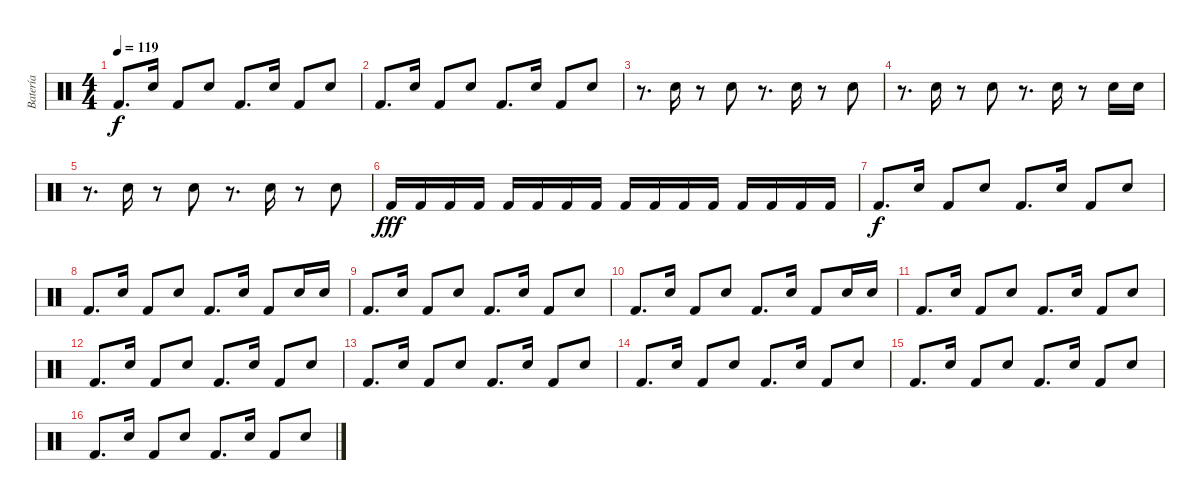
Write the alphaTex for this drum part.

\track ("Batería" "Batería") {instrument percussion}
\staff {score}
\articulation defaults
\ts (4 4)
\tempo 119
\clef neutral
\ks c "Kick (hit) 2".8{d dy f} "Electric Snare (hit)".16 "Kick (hit) 2".8 "Electric Snare (hit)".8 "Kick (hit) 2".8{d} "Electric Snare (hit)".16 "Kick (hit) 2".8 "Electric Snare (hit)".8
|
"Kick (hit) 2".8{d} "Electric Snare (hit)".16 "Kick (hit) 2".8 "Electric Snare (hit)".8 "Kick (hit) 2".8{d} "Electric Snare (hit)".16 "Kick (hit) 2".8 "Electric Snare (hit)".8 |
r.8{d} "Electric Snare (hit)".16 r.8 "Electric Snare (hit)".8 r.8{d} "Electric Snare (hit)".16 r.8 "Electric Snare (hit)".8 |
r.8{d} "Electric Snare (hit)".16 r.8 "Electric Snare (hit)".8 r.8{d} "Electric Snare (hit)".16 r.8 "Electric Snare (hit)".16 "Electric Snare (hit)".16 |
r.8{d} "Electric Snare (hit)".16 r.8 "Electric Snare (hit)".8 r.8{d} "Electric Snare (hit)".16 r.8 "Electric Snare (hit)".8 |
"Kick (hit) 2".16{dy fff volume 10} "Kick (hit) 2".16{volume 16} "Kick (hit) 2".16 "Kick (hit) 2".16 "Kick (hit) 2".16 "Kick (hit) 2".16 "Kick (hit) 2".16 "Kick (hit) 2".16 "Kick (hit) 2".16 "Kick (hit) 2".16 "Kick (hit) 2".16 "Kick (hit) 2".16 "Kick (hit) 2".16 "Kick (hit) 2".16 "Kick (hit) 2".16 "Kick (hit) 2".16 |
"Kick (hit) 2".8{d dy f} "Electric Snare (hit)".16 "Kick (hit) 2".8 "Electric Snare (hit)".8 "Kick (hit) 2".8{d} "Electric Snare (hit)".16 "Kick (hit) 2".8 "Electric Snare (hit)".8 |
"Kick (hit) 2".8{d} "Electric Snare (hit)".16 "Kick (hit) 2".8 "Electric Snare (hit)".8 "Kick (hit) 2".8{d} "Electric Snare (hit)".16 "Kick (hit) 2".8 "Electric Snare (hit)".16 "Electric Snare (hit)".16 |
"Kick (hit) 2".8{d} "Electric Snare (hit)".16 "Kick (hit) 2".8 "Electric Snare (hit)".8 "Kick (hit) 2".8{d} "Electric Snare (hit)".16 "Kick (hit) 2".8 "Electric Snare (hit)".8 |
"Kick (hit) 2".8{d} "Electric Snare (hit)".16 "Kick (hit) 2".8 "Electric Snare (hit)".8 "Kick (hit) 2".8{d} "Electric Snare (hit)".16 "Kick (hit) 2".8 "Electric Snare (hit)".16 "Electric Snare (hit)".16 |
"Kick (hit) 2".8{d} "Electric Snare (hit)".16 "Kick (hit) 2".8 "Electric Snare (hit)".8 "Kick (hit) 2".8{d} "Electric Snare (hit)".16 "Kick (hit) 2".8 "Electric Snare (hit)".8 |
"Kick (hit) 2".8{d} "Electric Snare (hit)".16 "Kick (hit) 2".8 "Electric Snare (hit)".8 "Kick (hit) 2".8{d} "Electric Snare (hit)".16 "Kick (hit) 2".8 "Electric Snare (hit)".8 |
"Kick (hit) 2".8{d} "Electric Snare (hit)".16 "Kick (hit) 2".8 "Electric Snare (hit)".8 "Kick (hit) 2".8{d} "Electric Snare (hit)".16 "Kick (hit) 2".8 "Electric Snare (hit)".8 |
"Kick (hit) 2".8{d} "Electric Snare (hit)".16 "Kick (hit) 2".8 "Electric Snare (hit)".8 "Kick (hit) 2".8{d} "Electric Snare (hit)".16 "Kick (hit) 2".8 "Electric Snare (hit)".8 |
"Kick (hit) 2".8{d} "Electric Snare (hit)".16 "Kick (hit) 2".8 "Electric Snare (hit)".8 "Kick (hit) 2".8{d} "Electric Snare (hit)".16 "Kick (hit) 2".8 "Electric Snare (hit)".8 |
"Kick (hit) 2".8{d} "Electric Snare (hit)".16 "Kick (hit) 2".8 "Electric Snare (hit)".8 "Kick (hit) 2".8{d} "Electric Snare (hit)".16 "Kick (hit) 2".8 "Electric Snare (hit)".8
